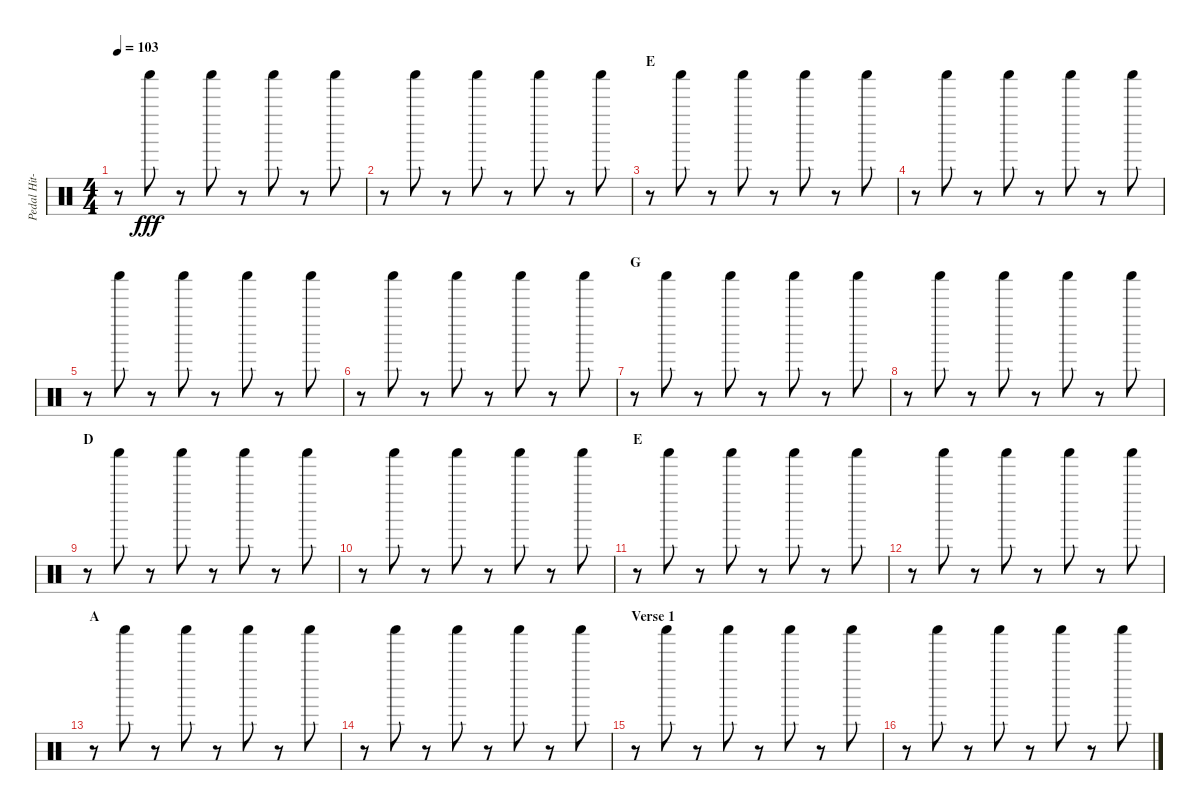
\track ("Pedal Hit-Hat" "Pedal Hit-") {instrument percussion}
\staff {score}
\articulation defaults
\ts (4 4)
\tempo 103
\clef neutral
\ks c
r.8{dy fff} "Shaker (hit)".8 r.8 "Shaker (hit)".8 r.8 "Shaker (hit)".8 r.8 "Shaker (hit)".8 |
r.8 "Shaker (hit)".8 r.8 "Shaker (hit)".8 r.8 "Shaker (hit)".8 r.8 "Shaker (hit)".8 |
\section ("" "E")
r.8 "Shaker (hit)".8 r.8 "Shaker (hit)".8 r.8 "Shaker (hit)".8 r.8 "Shaker (hit)".8 |
r.8 "Shaker (hit)".8 r.8 "Shaker (hit)".8 r.8 "Shaker (hit)".8 r.8 "Shaker (hit)".8 |
r.8 "Shaker (hit)".8 r.8 "Shaker (hit)".8 r.8 "Shaker (hit)".8 r.8 "Shaker (hit)".8 |
r.8 "Shaker (hit)".8 r.8 "Shaker (hit)".8 r.8 "Shaker (hit)".8 r.8 "Shaker (hit)".8 |
\section ("" "G")
r.8 "Shaker (hit)".8 r.8 "Shaker (hit)".8 r.8 "Shaker (hit)".8 r.8 "Shaker (hit)".8 |
r.8 "Shaker (hit)".8 r.8 "Shaker (hit)".8 r.8 "Shaker (hit)".8 r.8 "Shaker (hit)".8 |
\section ("" "D")
r.8 "Shaker (hit)".8 r.8 "Shaker (hit)".8 r.8 "Shaker (hit)".8 r.8 "Shaker (hit)".8 |
r.8 "Shaker (hit)".8 r.8 "Shaker (hit)".8 r.8 "Shaker (hit)".8 r.8 "Shaker (hit)".8 |
\section ("" "E")
r.8 "Shaker (hit)".8 r.8 "Shaker (hit)".8 r.8 "Shaker (hit)".8 r.8 "Shaker (hit)".8 |
r.8 "Shaker (hit)".8 r.8 "Shaker (hit)".8 r.8 "Shaker (hit)".8 r.8 "Shaker (hit)".8 |
\section ("" "A")
r.8 "Shaker (hit)".8 r.8 "Shaker (hit)".8 r.8 "Shaker (hit)".8 r.8 "Shaker (hit)".8 |
r.8 "Shaker (hit)".8 r.8 "Shaker (hit)".8 r.8 "Shaker (hit)".8 r.8 "Shaker (hit)".8 |
\section ("" "Verse 1")
r.8 "Shaker (hit)".8 r.8 "Shaker (hit)".8 r.8 "Shaker (hit)".8 r.8 "Shaker (hit)".8 |
r.8 "Shaker (hit)".8 r.8 "Shaker (hit)".8 r.8 "Shaker (hit)".8 r.8 "Shaker (hit)".8
